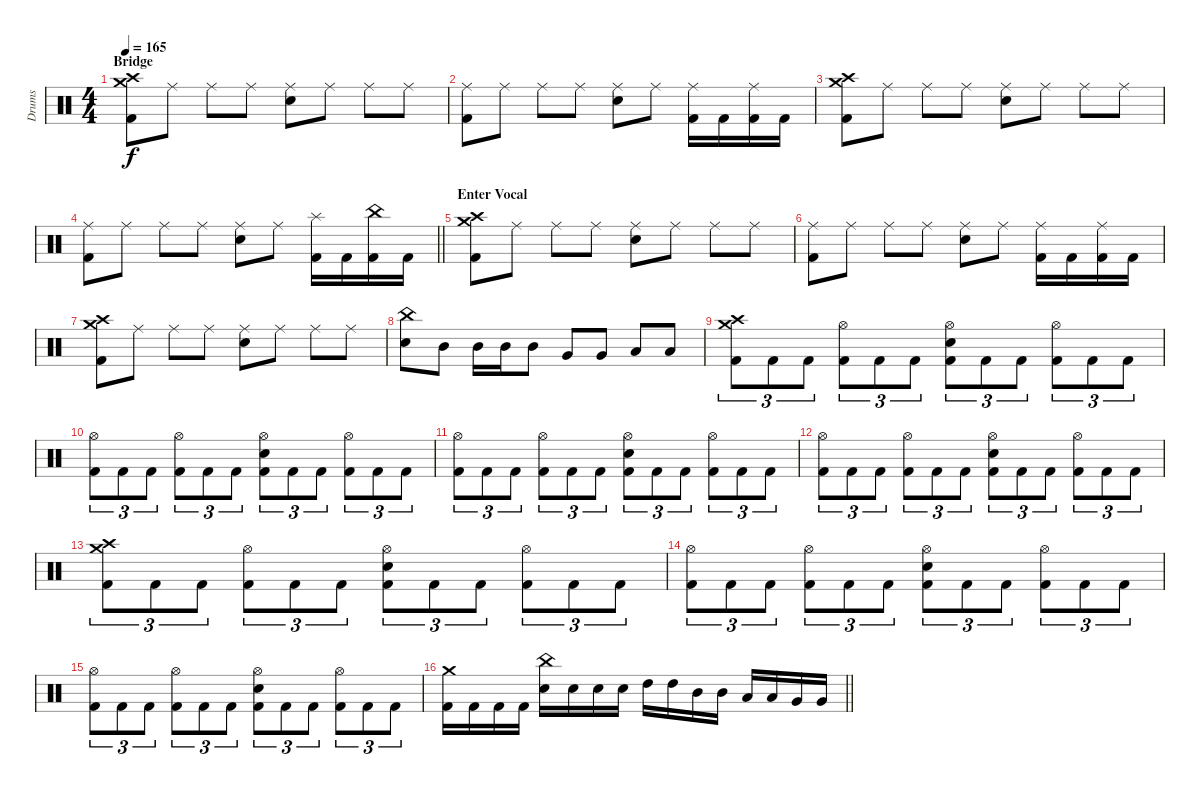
\track ("Drums" "Drums") {instrument percussion}
\staff {score}
\articulation defaults
\ts (4 4)
\section ("" "Bridge")
\tempo 165
\clef neutral
\ks c
("Crash medium (hit)" "Crash high (hit)" "Kick (hit) 2").8{dy f} "Ride (middle)".8 "Ride (middle)".8 "Ride (middle)".8 ("Ride (middle)" "Electric Snare (hit)").8 "Ride (middle)".8 "Ride (middle)".8 "Ride (middle)".8 |
("Ride (middle)" "Kick (hit) 2").8 "Ride (middle)".8 "Ride (middle)".8 "Ride (middle)".8 ("Ride (middle)" "Electric Snare (hit)").8 "Ride (middle)".8 ("Ride (middle)" "Kick (hit) 2").16 "Kick (hit) 2".16 ("Ride (middle)" "Kick (hit) 2").16 "Kick (hit) 2".16 |
("Crash medium (hit)" "Crash high (hit)" "Kick (hit) 2").8 "Ride (middle)".8 "Ride (middle)".8 "Ride (middle)".8 ("Ride (middle)" "Electric Snare (hit)").8 "Ride (middle)".8 "Ride (middle)".8 "Ride (middle)".8 |
\barLineRight lightlight
("Ride (middle)" "Kick (hit) 2").8 "Ride (middle)".8 "Ride (middle)".8 "Ride (middle)".8 ("Ride (middle)" "Electric Snare (hit)").8 "Ride (middle)".8 ("Splash (hit)" "Kick (hit) 2").16 "Kick (hit) 2".16 ("China (hit)" "Kick (hit) 2").16 "Kick (hit) 2".16 |
\section ("" "Enter Vocal")
("Crash medium (hit)" "Crash high (hit)" "Kick (hit) 2").8 "Ride (middle)".8 "Ride (middle)".8 "Ride (middle)".8 ("Ride (middle)" "Electric Snare (hit)").8 "Ride (middle)".8 "Ride (middle)".8 "Ride (middle)".8 |
("Ride (middle)" "Kick (hit) 2").8 "Ride (middle)".8 "Ride (middle)".8 "Ride (middle)".8 ("Ride (middle)" "Electric Snare (hit)").8 "Ride (middle)".8 ("Ride (middle)" "Kick (hit) 2").16 "Kick (hit) 2".16 ("Ride (middle)" "Kick (hit) 2").16 "Kick (hit) 2".16 |
("Crash medium (hit)" "Crash high (hit)" "Kick (hit) 2").8 "Ride (middle)".8 "Ride (middle)".8 "Ride (middle)".8 ("Ride (middle)" "Electric Snare (hit)").8 "Ride (middle)".8 "Ride (middle)".8 "Ride (middle)".8 |
("China (hit)" "Electric Snare (hit)").8 "Mid Tom (hit)".8 "Mid Tom (hit)".16 "Mid Tom (hit)".16 "Mid Tom (hit)".8 "Very Low Tom (hit)".8 "Very Low Tom (hit)".8 "Low Tom (hit)".8 "Low Tom (hit)".8 |
("Crash medium (hit)" "Crash high (hit)" "Kick (hit) 2").8{tu (3 2)} "Kick (hit) 2".8{tu (3 2)} "Kick (hit) 2".8{tu (3 2)} ("Hi-Hat (open)" "Kick (hit) 2").8{tu (3 2)} "Kick (hit) 2".8{tu (3 2)} "Kick (hit) 2".8{tu (3 2)} ("Hi-Hat (open)" "Electric Snare (hit)" "Kick (hit) 2").8{tu (3 2)} "Kick (hit) 2".8{tu (3 2)} "Kick (hit) 2".8{tu (3 2)} ("Hi-Hat (open)" "Kick (hit) 2").8{tu (3 2)} "Kick (hit) 2".8{tu (3 2)} "Kick (hit) 2".8{tu (3 2)} |
("Hi-Hat (open)" "Kick (hit) 2").8{tu (3 2)} "Kick (hit) 2".8{tu (3 2)} "Kick (hit) 2".8{tu (3 2)} ("Hi-Hat (open)" "Kick (hit) 2").8{tu (3 2)} "Kick (hit) 2".8{tu (3 2)} "Kick (hit) 2".8{tu (3 2)} ("Hi-Hat (open)" "Electric Snare (hit)" "Kick (hit) 2").8{tu (3 2)} "Kick (hit) 2".8{tu (3 2)} "Kick (hit) 2".8{tu (3 2)} ("Hi-Hat (open)" "Kick (hit) 2").8{tu (3 2)} "Kick (hit) 2".8{tu (3 2)} "Kick (hit) 2".8{tu (3 2)} |
("Hi-Hat (open)" "Kick (hit) 2").8{tu (3 2)} "Kick (hit) 2".8{tu (3 2)} "Kick (hit) 2".8{tu (3 2)} ("Hi-Hat (open)" "Kick (hit) 2").8{tu (3 2)} "Kick (hit) 2".8{tu (3 2)} "Kick (hit) 2".8{tu (3 2)} ("Hi-Hat (open)" "Electric Snare (hit)" "Kick (hit) 2").8{tu (3 2)} "Kick (hit) 2".8{tu (3 2)} "Kick (hit) 2".8{tu (3 2)} ("Hi-Hat (open)" "Kick (hit) 2").8{tu (3 2)} "Kick (hit) 2".8{tu (3 2)} "Kick (hit) 2".8{tu (3 2)} |
("Hi-Hat (open)" "Kick (hit) 2").8{tu (3 2)} "Kick (hit) 2".8{tu (3 2)} "Kick (hit) 2".8{tu (3 2)} ("Hi-Hat (open)" "Kick (hit) 2").8{tu (3 2)} "Kick (hit) 2".8{tu (3 2)} "Kick (hit) 2".8{tu (3 2)} ("Hi-Hat (open)" "Electric Snare (hit)" "Kick (hit) 2").8{tu (3 2)} "Kick (hit) 2".8{tu (3 2)} "Kick (hit) 2".8{tu (3 2)} ("Hi-Hat (open)" "Kick (hit) 2").8{tu (3 2)} "Kick (hit) 2".8{tu (3 2)} "Kick (hit) 2".8{tu (3 2)} |
("Crash medium (hit)" "Crash high (hit)" "Kick (hit) 2").8{tu (3 2)} "Kick (hit) 2".8{tu (3 2)} "Kick (hit) 2".8{tu (3 2)} ("Hi-Hat (open)" "Kick (hit) 2").8{tu (3 2)} "Kick (hit) 2".8{tu (3 2)} "Kick (hit) 2".8{tu (3 2)} ("Hi-Hat (open)" "Electric Snare (hit)" "Kick (hit) 2").8{tu (3 2)} "Kick (hit) 2".8{tu (3 2)} "Kick (hit) 2".8{tu (3 2)} ("Hi-Hat (open)" "Kick (hit) 2").8{tu (3 2)} "Kick (hit) 2".8{tu (3 2)} "Kick (hit) 2".8{tu (3 2)} |
("Hi-Hat (open)" "Kick (hit) 2").8{tu (3 2)} "Kick (hit) 2".8{tu (3 2)} "Kick (hit) 2".8{tu (3 2)} ("Hi-Hat (open)" "Kick (hit) 2").8{tu (3 2)} "Kick (hit) 2".8{tu (3 2)} "Kick (hit) 2".8{tu (3 2)} ("Hi-Hat (open)" "Electric Snare (hit)" "Kick (hit) 2").8{tu (3 2)} "Kick (hit) 2".8{tu (3 2)} "Kick (hit) 2".8{tu (3 2)} ("Hi-Hat (open)" "Kick (hit) 2").8{tu (3 2)} "Kick (hit) 2".8{tu (3 2)} "Kick (hit) 2".8{tu (3 2)} |
("Hi-Hat (open)" "Kick (hit) 2").8{tu (3 2)} "Kick (hit) 2".8{tu (3 2)} "Kick (hit) 2".8{tu (3 2)} ("Hi-Hat (open)" "Kick (hit) 2").8{tu (3 2)} "Kick (hit) 2".8{tu (3 2)} "Kick (hit) 2".8{tu (3 2)} ("Hi-Hat (open)" "Electric Snare (hit)" "Kick (hit) 2").8{tu (3 2)} "Kick (hit) 2".8{tu (3 2)} "Kick (hit) 2".8{tu (3 2)} ("Hi-Hat (open)" "Kick (hit) 2").8{tu (3 2)} "Kick (hit) 2".8{tu (3 2)} "Kick (hit) 2".8{tu (3 2)} |
\barLineRight lightlight
("Crash medium (hit)" "Kick (hit) 2").16 "Kick (hit) 2".16 "Kick (hit) 2".16 "Kick (hit) 2".16 ("China (hit)" "Electric Snare (hit)").16 "Electric Snare (hit)".16 "Electric Snare (hit)".16 "Electric Snare (hit)".16 "High Tom (hit)".16 "High Tom (hit)".16 "Mid Tom (hit)".16 "Mid Tom (hit)".16 "Low Tom (hit)".16 "Low Tom (hit)".16 "Very Low Tom (hit)".16 "Very Low Tom (hit)".16
